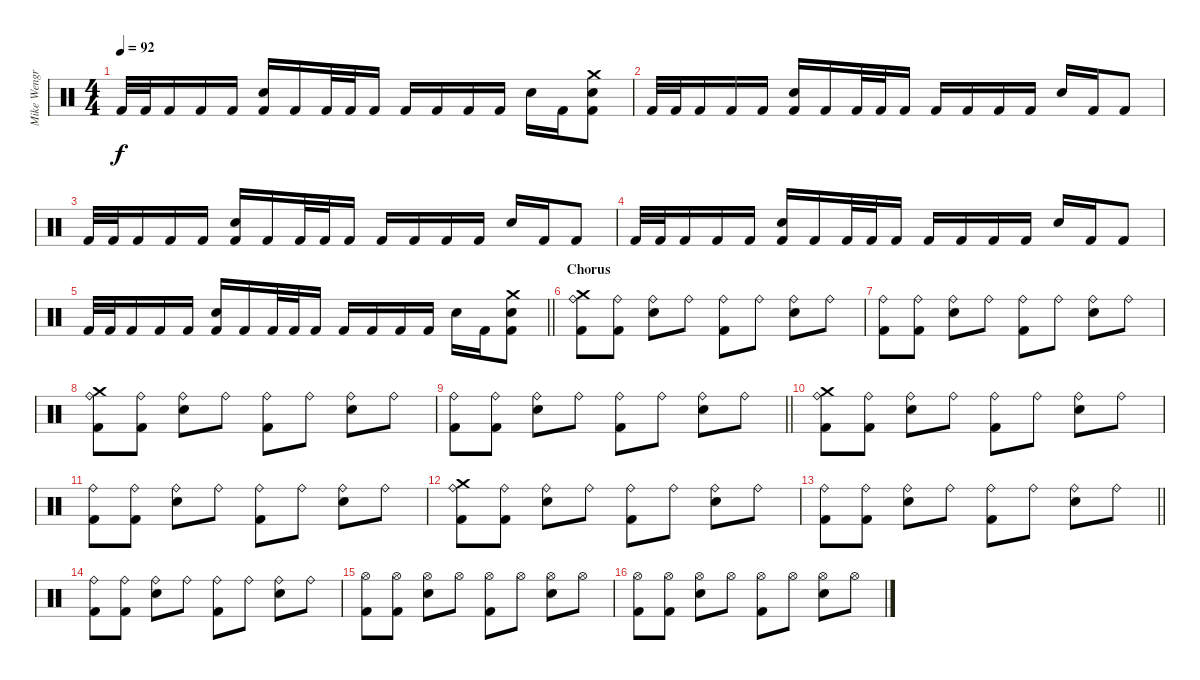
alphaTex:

\track ("Mike Wengren" "Mike Wengr") {instrument percussion}
\staff {score}
\articulation defaults
\ts (4 4)
\tempo 92
\clef neutral
\ks c "Kick (hit) 2".32{dy f} "Kick (hit) 2".32 "Kick (hit) 2".16 "Kick (hit) 2".16 "Kick (hit) 2".16
("Kick (hit) 2" "Electric Snare (hit)").16 "Kick (hit) 2".16 "Kick (hit) 2".32 "Kick (hit) 2".32 "Kick (hit) 2".16 "Kick (hit) 2".16 "Kick (hit) 2".16 "Kick (hit) 2".16 "Kick (hit) 2".16 "Electric Snare (hit)".16 "Kick (hit) 2".16 ("Kick (hit) 2" "Electric Snare (hit)" "Crash medium (hit)").8 |
"Kick (hit) 2".32 "Kick (hit) 2".32 "Kick (hit) 2".16 "Kick (hit) 2".16 "Kick (hit) 2".16 ("Kick (hit) 2" "Electric Snare (hit)").16 "Kick (hit) 2".16 "Kick (hit) 2".32 "Kick (hit) 2".32 "Kick (hit) 2".16 "Kick (hit) 2".16 "Kick (hit) 2".16 "Kick (hit) 2".16 "Kick (hit) 2".16 "Electric Snare (hit)".16 "Kick (hit) 2".16 "Kick (hit) 2".8 |
"Kick (hit) 2".32 "Kick (hit) 2".32 "Kick (hit) 2".16 "Kick (hit) 2".16 "Kick (hit) 2".16 ("Kick (hit) 2" "Electric Snare (hit)").16 "Kick (hit) 2".16 "Kick (hit) 2".32 "Kick (hit) 2".32 "Kick (hit) 2".16 "Kick (hit) 2".16 "Kick (hit) 2".16 "Kick (hit) 2".16 "Kick (hit) 2".16 "Electric Snare (hit)".16 "Kick (hit) 2".16 "Kick (hit) 2".8 |
"Kick (hit) 2".32 "Kick (hit) 2".32 "Kick (hit) 2".16 "Kick (hit) 2".16 "Kick (hit) 2".16 ("Kick (hit) 2" "Electric Snare (hit)").16 "Kick (hit) 2".16 "Kick (hit) 2".32 "Kick (hit) 2".32 "Kick (hit) 2".16 "Kick (hit) 2".16 "Kick (hit) 2".16 "Kick (hit) 2".16 "Kick (hit) 2".16 "Electric Snare (hit)".16 "Kick (hit) 2".16 "Kick (hit) 2".8 |
\barLineRight lightlight "Kick (hit) 2".32 "Kick (hit) 2".32 "Kick (hit) 2".16 "Kick (hit) 2".16 "Kick (hit) 2".16
("Kick (hit) 2" "Electric Snare (hit)").16 "Kick (hit) 2".16 "Kick (hit) 2".32 "Kick (hit) 2".32 "Kick (hit) 2".16 "Kick (hit) 2".16 "Kick (hit) 2".16 "Kick (hit) 2".16 "Kick (hit) 2".16 "Electric Snare (hit)".16 "Kick (hit) 2".16 ("Kick (hit) 2" "Electric Snare (hit)" "Crash medium (hit)").8 |
\section ("" "Chorus")
("Kick (hit) 2" "Ride (bell)" "Crash medium (hit)").8 ("Kick (hit) 2" "Ride (bell)").8 ("Electric Snare (hit)" "Ride (bell)").8 "Ride (bell)".8 ("Kick (hit) 2" "Ride (bell)").8 "Ride (bell)".8 ("Electric Snare (hit)" "Ride (bell)").8 "Ride (bell)".8 |
("Kick (hit) 2" "Ride (bell)").8 ("Kick (hit) 2" "Ride (bell)").8 ("Electric Snare (hit)" "Ride (bell)").8 "Ride (bell)".8 ("Kick (hit) 2" "Ride (bell)").8 "Ride (bell)".8 ("Electric Snare (hit)" "Ride (bell)").8 "Ride (bell)".8 |
("Kick (hit) 2" "Ride (bell)" "Crash medium (hit)").8 ("Kick (hit) 2" "Ride (bell)").8 ("Electric Snare (hit)" "Ride (bell)").8 "Ride (bell)".8 ("Kick (hit) 2" "Ride (bell)").8 "Ride (bell)".8 ("Electric Snare (hit)" "Ride (bell)").8 "Ride (bell)".8 |
\barLineRight lightlight
("Kick (hit) 2" "Ride (bell)").8 ("Kick (hit) 2" "Ride (bell)").8 ("Electric Snare (hit)" "Ride (bell)").8 "Ride (bell)".8 ("Kick (hit) 2" "Ride (bell)").8 "Ride (bell)".8 ("Electric Snare (hit)" "Ride (bell)").8 "Ride (bell)".8 |
("Kick (hit) 2" "Ride (bell)" "Crash medium (hit)").8 ("Kick (hit) 2" "Ride (bell)").8 ("Electric Snare (hit)" "Ride (bell)").8 "Ride (bell)".8 ("Kick (hit) 2" "Ride (bell)").8 "Ride (bell)".8 ("Electric Snare (hit)" "Ride (bell)").8 "Ride (bell)".8 |
("Kick (hit) 2" "Ride (bell)").8 ("Kick (hit) 2" "Ride (bell)").8 ("Electric Snare (hit)" "Ride (bell)").8 "Ride (bell)".8 ("Kick (hit) 2" "Ride (bell)").8 "Ride (bell)".8 ("Electric Snare (hit)" "Ride (bell)").8 "Ride (bell)".8 |
("Kick (hit) 2" "Ride (bell)" "Crash medium (hit)").8 ("Kick (hit) 2" "Ride (bell)").8 ("Electric Snare (hit)" "Ride (bell)").8 "Ride (bell)".8 ("Kick (hit) 2" "Ride (bell)").8 "Ride (bell)".8 ("Electric Snare (hit)" "Ride (bell)").8 "Ride (bell)".8 |
\barLineRight lightlight
("Kick (hit) 2" "Ride (bell)").8 ("Kick (hit) 2" "Ride (bell)").8 ("Electric Snare (hit)" "Ride (bell)").8 "Ride (bell)".8 ("Kick (hit) 2" "Ride (bell)").8 "Ride (bell)".8 ("Electric Snare (hit)" "Ride (bell)").8 "Ride (bell)".8 |
("Kick (hit) 2" "Ride (bell)").8 ("Kick (hit) 2" "Ride (bell)").8 ("Electric Snare (hit)" "Ride (bell)").8 "Ride (bell)".8 ("Kick (hit) 2" "Ride (bell)").8 "Ride (bell)".8 ("Electric Snare (hit)" "Ride (bell)").8 "Ride (bell)".8 |
("Kick (hit) 2" "Hi-Hat (open)").8 ("Kick (hit) 2" "Hi-Hat (open)").8 ("Electric Snare (hit)" "Hi-Hat (open)").8 "Hi-Hat (open)".8 ("Kick (hit) 2" "Hi-Hat (open)").8 "Hi-Hat (open)".8 ("Electric Snare (hit)" "Hi-Hat (open)").8 "Hi-Hat (open)".8 |
("Kick (hit) 2" "Hi-Hat (open)").8 ("Kick (hit) 2" "Hi-Hat (open)").8 ("Electric Snare (hit)" "Hi-Hat (open)").8 "Hi-Hat (open)".8 ("Kick (hit) 2" "Hi-Hat (open)").8 "Hi-Hat (open)".8 ("Electric Snare (hit)" "Hi-Hat (open)").8 "Hi-Hat (open)".8
